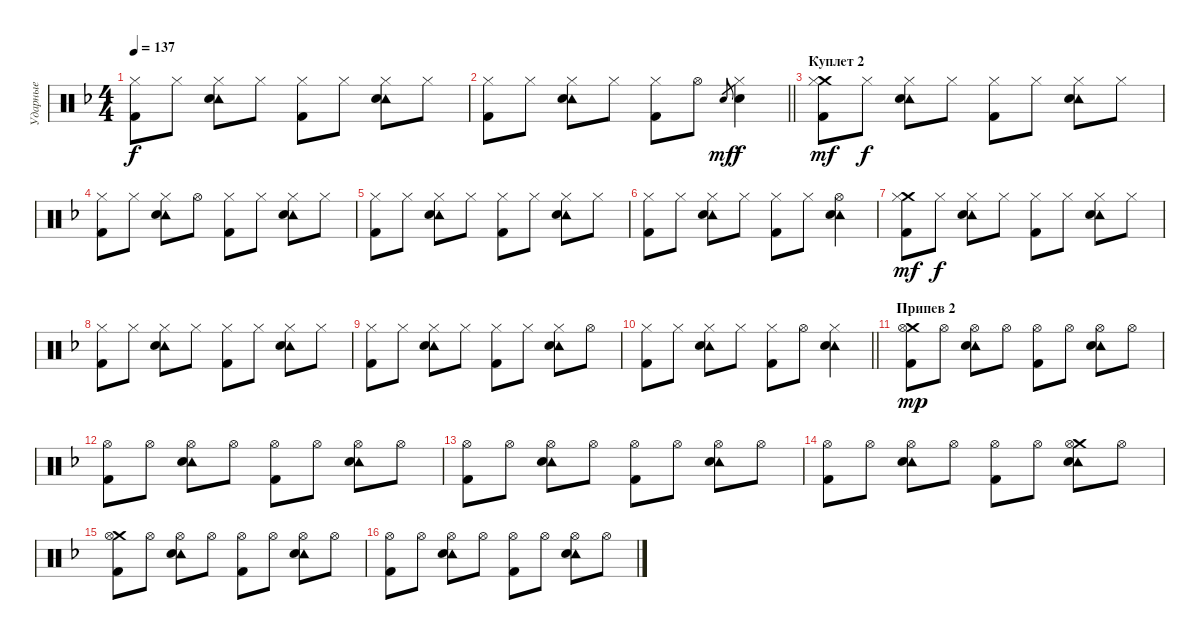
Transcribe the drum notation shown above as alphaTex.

\track ("Ударные" "Ударные") {instrument percussion}
\staff {score}
\articulation defaults
\ts (4 4)
\tempo 137
\clef neutral
\ks dminor
("Hi-Hat (closed)" "Kick (hit) 2").8{dy f} "Hi-Hat (closed)".8 ("Tambourine (hit)" "Hi-Hat (closed)" "Electric Snare (hit)").8 "Hi-Hat (closed)".8 ("Hi-Hat (closed)" "Kick (hit) 2").8 "Hi-Hat (closed)".8 ("Tambourine (hit)" "Hi-Hat (closed)" "Electric Snare (hit)").8 "Hi-Hat (closed)".8 |
\barLineRight lightlight
("Hi-Hat (closed)" "Kick (hit) 2").8 "Hi-Hat (closed)".8 ("Tambourine (hit)" "Hi-Hat (closed)" "Electric Snare (hit)").8 "Hi-Hat (closed)".8 ("Hi-Hat (closed)" "Kick (hit) 2").8 "Hi-Hat (open)".8 "Electric Snare (hit)".8{gr dy mf} ("Hi-Hat (closed)" "Electric Snare (hit)").4{dy f} |
\section ("" "Куплет 2")
("Crash medium (hit)" "Hi-Hat (closed)" "Kick (hit) 2").8{dy mf} "Hi-Hat (closed)".8{dy f} ("Tambourine (hit)" "Hi-Hat (closed)" "Electric Snare (hit)").8 "Hi-Hat (closed)".8 ("Hi-Hat (closed)" "Kick (hit) 2").8 "Hi-Hat (closed)".8 ("Tambourine (hit)" "Hi-Hat (closed)" "Electric Snare (hit)").8 "Hi-Hat (closed)".8 |
("Hi-Hat (closed)" "Kick (hit) 2").8 "Hi-Hat (closed)".8 ("Tambourine (hit)" "Hi-Hat (closed)" "Electric Snare (hit)").8 "Hi-Hat (open)".8 ("Hi-Hat (closed)" "Kick (hit) 2").8 "Hi-Hat (closed)".8 ("Tambourine (hit)" "Hi-Hat (closed)" "Electric Snare (hit)").8 "Hi-Hat (closed)".8 |
("Hi-Hat (closed)" "Kick (hit) 2").8 "Hi-Hat (closed)".8 ("Tambourine (hit)" "Hi-Hat (closed)" "Electric Snare (hit)").8 "Hi-Hat (closed)".8 ("Hi-Hat (closed)" "Kick (hit) 2").8 "Hi-Hat (closed)".8 ("Tambourine (hit)" "Hi-Hat (closed)" "Electric Snare (hit)").8 "Hi-Hat (closed)".8 |
("Hi-Hat (closed)" "Kick (hit) 2").8 "Hi-Hat (closed)".8 ("Tambourine (hit)" "Hi-Hat (closed)" "Electric Snare (hit)").8 "Hi-Hat (closed)".8 ("Hi-Hat (closed)" "Kick (hit) 2").8 "Hi-Hat (closed)".8 ("Tambourine (hit)" "Hi-Hat (open)" "Electric Snare (hit)").4 |
("Crash medium (hit)" "Hi-Hat (closed)" "Kick (hit) 2").8{dy mf} "Hi-Hat (closed)".8{dy f} ("Tambourine (hit)" "Hi-Hat (closed)" "Electric Snare (hit)").8 "Hi-Hat (closed)".8 ("Hi-Hat (closed)" "Kick (hit) 2").8 "Hi-Hat (closed)".8 ("Tambourine (hit)" "Hi-Hat (closed)" "Electric Snare (hit)").8 "Hi-Hat (closed)".8 |
("Hi-Hat (closed)" "Kick (hit) 2").8 "Hi-Hat (closed)".8 ("Tambourine (hit)" "Hi-Hat (closed)" "Electric Snare (hit)").8 "Hi-Hat (closed)".8 ("Hi-Hat (closed)" "Kick (hit) 2").8 "Hi-Hat (closed)".8 ("Tambourine (hit)" "Hi-Hat (closed)" "Electric Snare (hit)").8 "Hi-Hat (closed)".8 |
("Hi-Hat (closed)" "Kick (hit) 2").8 "Hi-Hat (closed)".8 ("Tambourine (hit)" "Hi-Hat (closed)" "Electric Snare (hit)").8 "Hi-Hat (closed)".8 ("Hi-Hat (closed)" "Kick (hit) 2").8 "Hi-Hat (closed)".8 ("Tambourine (hit)" "Hi-Hat (closed)" "Electric Snare (hit)").8 "Hi-Hat (open)".8 |
\barLineRight lightlight
("Hi-Hat (closed)" "Kick (hit) 2").8 "Hi-Hat (closed)".8 ("Tambourine (hit)" "Hi-Hat (closed)" "Electric Snare (hit)").8 "Hi-Hat (closed)".8 ("Hi-Hat (closed)" "Kick (hit) 2").8 "Hi-Hat (open)".8 ("Tambourine (hit)" "Hi-Hat (closed)" "Electric Snare (hit)").4 |
\section ("" "Припев 2")
("Crash medium (hit)" "Hi-Hat (open)" "Kick (hit) 2").8{dy mp} "Hi-Hat (open)".8 ("Tambourine (hit)" "Hi-Hat (open)" "Electric Snare (hit)").8 "Hi-Hat (open)".8 ("Hi-Hat (open)" "Kick (hit) 2").8 "Hi-Hat (open)".8 ("Tambourine (hit)" "Hi-Hat (open)" "Electric Snare (hit)").8 "Hi-Hat (open)".8 |
("Hi-Hat (open)" "Kick (hit) 2").8 "Hi-Hat (open)".8 ("Tambourine (hit)" "Hi-Hat (open)" "Electric Snare (hit)").8 "Hi-Hat (open)".8 ("Hi-Hat (open)" "Kick (hit) 2").8 "Hi-Hat (open)".8 ("Tambourine (hit)" "Hi-Hat (open)" "Electric Snare (hit)").8 "Hi-Hat (open)".8 |
("Hi-Hat (open)" "Kick (hit) 2").8 "Hi-Hat (open)".8 ("Tambourine (hit)" "Hi-Hat (open)" "Electric Snare (hit)").8 "Hi-Hat (open)".8 ("Hi-Hat (open)" "Kick (hit) 2").8 "Hi-Hat (open)".8 ("Tambourine (hit)" "Hi-Hat (open)" "Electric Snare (hit)").8 "Hi-Hat (open)".8 |
("Hi-Hat (open)" "Kick (hit) 2").8 "Hi-Hat (open)".8 ("Tambourine (hit)" "Hi-Hat (open)" "Electric Snare (hit)").8 "Hi-Hat (open)".8 ("Hi-Hat (open)" "Kick (hit) 2").8 "Hi-Hat (open)".8 ("Crash medium (hit)" "Hi-Hat (open)" "Tambourine (hit)" "Electric Snare (hit)").8 "Hi-Hat (open)".8 |
("Crash medium (hit)" "Hi-Hat (open)" "Kick (hit) 2").8 "Hi-Hat (open)".8 ("Tambourine (hit)" "Hi-Hat (open)" "Electric Snare (hit)").8 "Hi-Hat (open)".8 ("Hi-Hat (open)" "Kick (hit) 2").8 "Hi-Hat (open)".8 ("Tambourine (hit)" "Hi-Hat (open)" "Electric Snare (hit)").8 "Hi-Hat (open)".8 |
("Hi-Hat (open)" "Kick (hit) 2").8 "Hi-Hat (open)".8 ("Tambourine (hit)" "Hi-Hat (open)" "Electric Snare (hit)").8 "Hi-Hat (open)".8 ("Hi-Hat (open)" "Kick (hit) 2").8 "Hi-Hat (open)".8 ("Tambourine (hit)" "Hi-Hat (open)" "Electric Snare (hit)").8 "Hi-Hat (open)".8
